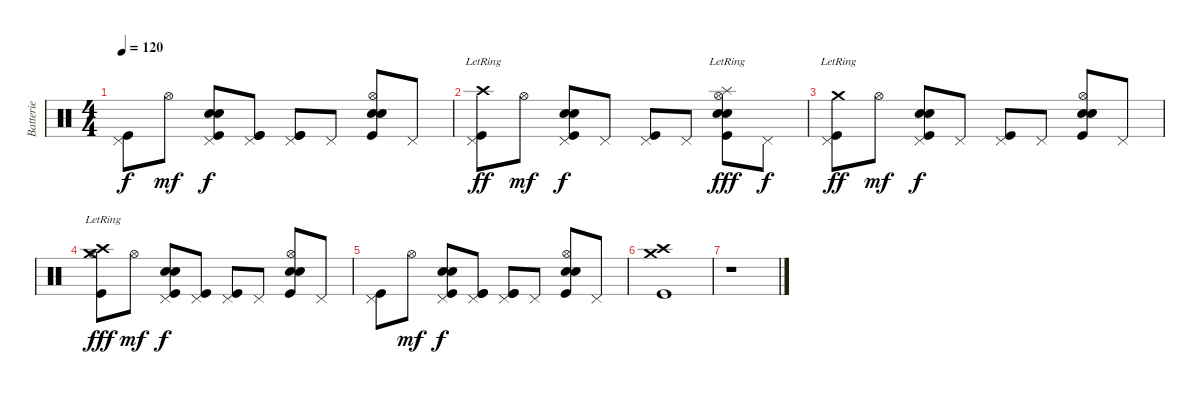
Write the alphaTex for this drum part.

\track ("Batterie" "Batterie") {instrument percussion}
\staff {score}
\articulation defaults
\ts (4 4)
\tempo 120
\clef neutral
\ks c
("Pedal Hi-Hat (hit)" "Kick (hit)").8{dy f} "Hi-Hat (open)".8{dy mf} ("Pedal Hi-Hat (hit)" "Kick (hit)" "Electric Snare (hit)" "Snare (hit) 2").8{dy f} ("Pedal Hi-Hat (hit)" "Kick (hit)" "Kick (hit)").8 ("Pedal Hi-Hat (hit)" "Kick (hit)" "Kick (hit)").8 "Pedal Hi-Hat (hit)".8 ("Hi-Hat (open)" "Kick (hit)" "Electric Snare (hit)" "Snare (hit) 2").8 "Pedal Hi-Hat (hit)".8 |
("Pedal Hi-Hat (hit)" "Kick (hit)" "Crash high (hit)"{lr}).8{dy ff} "Hi-Hat (open)".8{dy mf} ("Pedal Hi-Hat (hit)" "Kick (hit)" "Electric Snare (hit)" "Snare (hit) 2").8{dy f} "Pedal Hi-Hat (hit)".8 ("Pedal Hi-Hat (hit)" "Kick (hit)").8 "Pedal Hi-Hat (hit)".8 ("Hi-Hat (open)" "Kick (hit)" "Electric Snare (hit)" "Snare (hit) 2" "Splash (hit)"{lr}).8{dy fff} "Pedal Hi-Hat (hit)".8{dy f} |
("Pedal Hi-Hat (hit)" "Kick (hit)" "Crash medium (hit)"{lr}).8{dy ff} "Hi-Hat (open)".8{dy mf} ("Pedal Hi-Hat (hit)" "Kick (hit)" "Electric Snare (hit)" "Snare (hit) 2").8{dy f} "Pedal Hi-Hat (hit)".8 ("Pedal Hi-Hat (hit)" "Kick (hit)").8 "Pedal Hi-Hat (hit)".8 ("Hi-Hat (open)" "Kick (hit)" "Electric Snare (hit)" "Snare (hit) 2").8 "Pedal Hi-Hat (hit)".8 |
("Hi-Hat (open)" "Kick (hit)" "Crash high (hit)"{lr} "Crash medium (hit)"{lr}).8{dy fff} "Hi-Hat (open)".8{dy mf} ("Pedal Hi-Hat (hit)" "Kick (hit)" "Electric Snare (hit)" "Snare (hit) 2").8{dy f} ("Pedal Hi-Hat (hit)" "Kick (hit)").8 ("Pedal Hi-Hat (hit)" "Kick (hit)").8 "Pedal Hi-Hat (hit)".8 ("Hi-Hat (open)" "Kick (hit)" "Electric Snare (hit)" "Snare (hit) 2").8 "Pedal Hi-Hat (hit)".8 |
("Pedal Hi-Hat (hit)" "Kick (hit)").8 "Hi-Hat (open)".8{dy mf} ("Pedal Hi-Hat (hit)" "Kick (hit)" "Electric Snare (hit)" "Snare (hit) 2").8{dy f} ("Pedal Hi-Hat (hit)" "Kick (hit)" "Kick (hit)").8 ("Pedal Hi-Hat (hit)" "Kick (hit)" "Kick (hit)").8 "Pedal Hi-Hat (hit)".8 ("Hi-Hat (open)" "Kick (hit)" "Electric Snare (hit)" "Snare (hit) 2").8 "Pedal Hi-Hat (hit)".8 |
("Kick (hit)" "Crash medium (hit)" "Crash high (hit)").1 |
r.1
